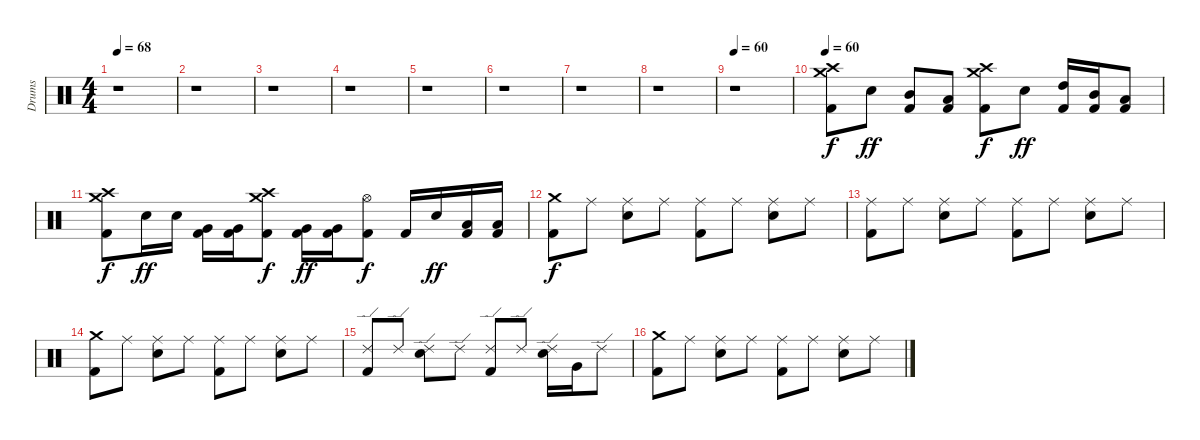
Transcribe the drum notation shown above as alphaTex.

\track ("Drums" "Drums") {instrument percussion}
\staff {score}
\articulation defaults
\ts (4 4)
\tempo 68
\clef neutral
\ks c
r.1{dy f} |
r.1 |
r.1 |
r.1 |
r.1 |
r.1 |
r.1 |
r.1 |
\tempo 60
r.1 |
\tempo 60
("Crash medium (hit)" "Crash high (hit)" "Kick (hit) 2").8 "Electric Snare (hit)".8{dy ff} ("Mid Tom (hit)" "Kick (hit) 2").8 ("Low Tom (hit)" "Kick (hit) 2").8 ("Crash medium (hit)" "Crash high (hit)" "Kick (hit) 2").8{dy f} "Electric Snare (hit)".8{dy ff} ("High Tom (hit)" "Kick (hit) 2").16 ("Mid Tom (hit)" "Kick (hit) 2").16 ("Low Tom (hit)" "Kick (hit) 2").8 |
("Crash medium (hit)" "Crash high (hit)" "Kick (hit) 2").8{dy f} "Electric Snare (hit)".16{dy ff} "Electric Snare (hit)".16 ("Very Low Tom (hit)" "Kick (hit) 2").16 ("Very Low Tom (hit)" "Kick (hit) 2").16 ("Crash medium (hit)" "Crash high (hit)" "Kick (hit) 2").8{dy f} ("Very Low Tom (hit)" "Kick (hit) 2").16{dy ff} ("Very Low Tom (hit)" "Kick (hit) 2").16 ("Hi-Hat (open)" "Kick (hit) 2").8{dy f} "Kick (hit) 2".16 "Electric Snare (hit)".16{dy ff} ("Low Tom (hit)" "Kick (hit) 2").16 ("Low Tom (hit)" "Kick (hit) 2").16 |
("Crash medium (hit)" "Kick (hit) 2").8{dy f} "Ride (middle)".8 ("Ride (middle)" "Electric Snare (hit)").8 "Ride (middle)".8 ("Ride (middle)" "Kick (hit) 2").8 "Ride (middle)".8 ("Ride (middle)" "Electric Snare (hit)").8 "Ride (middle)".8 |
("Ride (middle)" "Kick (hit) 2").8 "Ride (middle)".8 ("Ride (middle)" "Electric Snare (hit)").8 "Ride (middle)".8 ("Ride (middle)" "Kick (hit) 2").8 "Ride (middle)".8 ("Ride (middle)" "Electric Snare (hit)").8 "Ride (middle)".8 |
("Crash medium (hit)" "Kick (hit) 2").8 "Ride (middle)".8 ("Ride (middle)" "Electric Snare (hit)").8 "Ride (middle)".8 ("Ride (middle)" "Kick (hit) 2").8 "Ride (middle)".8 ("Ride (middle)" "Electric Snare (hit)").8 "Ride (middle)".8 |
("Ride (edge) 2" "Kick (hit) 2").8 "Ride (edge) 2".8 ("Ride (edge) 2" "Electric Snare (hit)").8 "Ride (edge) 2".8 ("Ride (edge) 2" "Kick (hit) 2").8 "Ride (edge) 2".8 ("Ride (edge) 2" "Electric Snare (hit)").16 "Very Low Tom (hit)".16 "Ride (edge) 2".8 |
("Crash medium (hit)" "Kick (hit) 2").8 "Ride (middle)".8 ("Ride (middle)" "Electric Snare (hit)").8 "Ride (middle)".8 ("Ride (middle)" "Kick (hit) 2").8 "Ride (middle)".8 ("Ride (middle)" "Electric Snare (hit)").8 "Ride (middle)".8
